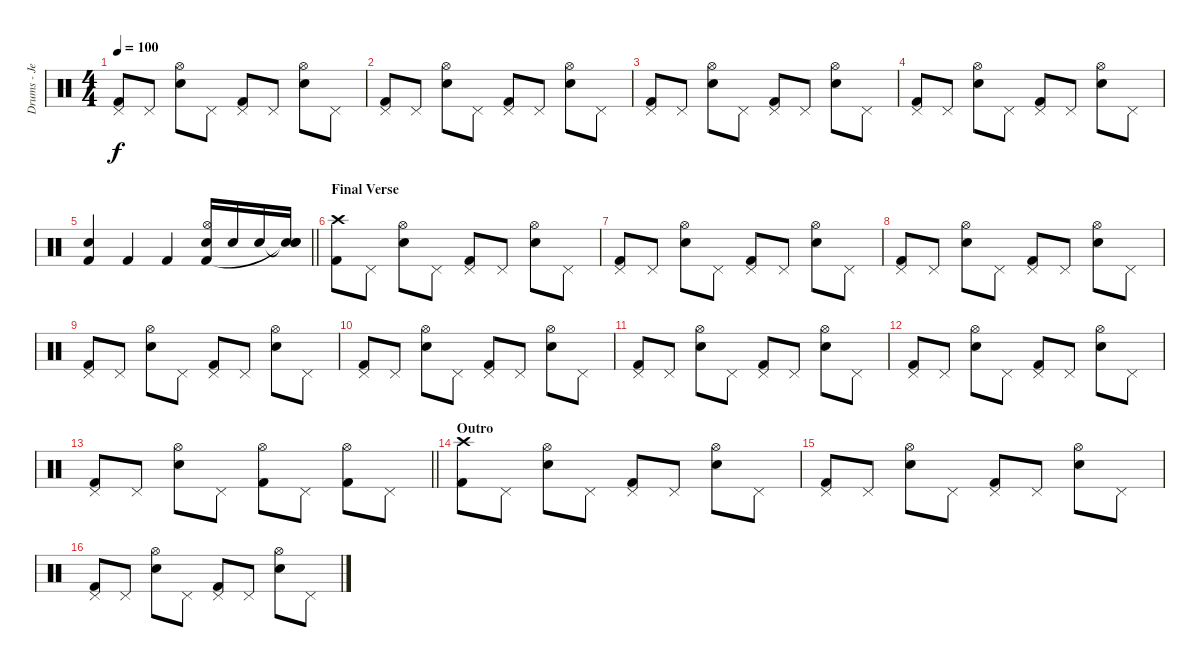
\track ("Drums - Jeremiah Green" "Drums - Je") {instrument percussion}
\staff {score}
\articulation defaults
\ts (4 4)
\tempo 100
\clef neutral
\ks c
("Pedal Hi-Hat (hit)" "Kick (hit) 2").8{dy f} "Pedal Hi-Hat (hit)".8 ("Hi-Hat (open)" "Electric Snare (hit)").8 "Pedal Hi-Hat (hit)".8 ("Pedal Hi-Hat (hit)" "Kick (hit) 2").8 "Pedal Hi-Hat (hit)".8 ("Hi-Hat (open)" "Electric Snare (hit)").8 "Pedal Hi-Hat (hit)".8 |
("Pedal Hi-Hat (hit)" "Kick (hit) 2").8 "Pedal Hi-Hat (hit)".8 ("Hi-Hat (open)" "Electric Snare (hit)").8 "Pedal Hi-Hat (hit)".8 ("Pedal Hi-Hat (hit)" "Kick (hit) 2").8 "Pedal Hi-Hat (hit)".8 ("Hi-Hat (open)" "Electric Snare (hit)").8 "Pedal Hi-Hat (hit)".8 |
("Pedal Hi-Hat (hit)" "Kick (hit) 2").8 "Pedal Hi-Hat (hit)".8 ("Hi-Hat (open)" "Electric Snare (hit)").8 "Pedal Hi-Hat (hit)".8 ("Pedal Hi-Hat (hit)" "Kick (hit) 2").8 "Pedal Hi-Hat (hit)".8 ("Hi-Hat (open)" "Electric Snare (hit)").8 "Pedal Hi-Hat (hit)".8 |
("Pedal Hi-Hat (hit)" "Kick (hit) 2").8 "Pedal Hi-Hat (hit)".8 ("Hi-Hat (open)" "Electric Snare (hit)").8 "Pedal Hi-Hat (hit)".8 ("Pedal Hi-Hat (hit)" "Kick (hit) 2").8 "Pedal Hi-Hat (hit)".8 ("Hi-Hat (open)" "Electric Snare (hit)").8 "Pedal Hi-Hat (hit)".8 |
\barLineRight lightlight
("Electric Snare (hit)" "Kick (hit) 2").4 "Kick (hit) 2".4 "Kick (hit) 2".4 ("Hi-Hat (open)" "Electric Snare (hit)" "Kick (hit) 2").16 "Electric Snare (hit)".16 "Electric Snare (hit)".16 ("Snare (hit)"{t} "Electric Snare (hit)" "Snare (hit)"{t}).16 |
\section ("" "Final Verse")
("Crash high (hit)" "Kick (hit) 2").8 "Pedal Hi-Hat (hit)".8 ("Hi-Hat (open)" "Electric Snare (hit)").8 "Pedal Hi-Hat (hit)".8 ("Pedal Hi-Hat (hit)" "Kick (hit) 2").8 "Pedal Hi-Hat (hit)".8 ("Hi-Hat (open)" "Electric Snare (hit)").8 "Pedal Hi-Hat (hit)".8 |
("Pedal Hi-Hat (hit)" "Kick (hit) 2").8 "Pedal Hi-Hat (hit)".8 ("Hi-Hat (open)" "Electric Snare (hit)").8 "Pedal Hi-Hat (hit)".8 ("Pedal Hi-Hat (hit)" "Kick (hit) 2").8 "Pedal Hi-Hat (hit)".8 ("Hi-Hat (open)" "Electric Snare (hit)").8 "Pedal Hi-Hat (hit)".8 |
("Pedal Hi-Hat (hit)" "Kick (hit) 2").8 "Pedal Hi-Hat (hit)".8 ("Hi-Hat (open)" "Electric Snare (hit)").8 "Pedal Hi-Hat (hit)".8 ("Pedal Hi-Hat (hit)" "Kick (hit) 2").8 "Pedal Hi-Hat (hit)".8 ("Hi-Hat (open)" "Electric Snare (hit)").8 "Pedal Hi-Hat (hit)".8 |
("Pedal Hi-Hat (hit)" "Kick (hit) 2").8 "Pedal Hi-Hat (hit)".8 ("Hi-Hat (open)" "Electric Snare (hit)").8 "Pedal Hi-Hat (hit)".8 ("Pedal Hi-Hat (hit)" "Kick (hit) 2").8 "Pedal Hi-Hat (hit)".8 ("Hi-Hat (open)" "Electric Snare (hit)").8 "Pedal Hi-Hat (hit)".8 |
("Pedal Hi-Hat (hit)" "Kick (hit) 2").8 "Pedal Hi-Hat (hit)".8 ("Hi-Hat (open)" "Electric Snare (hit)").8 "Pedal Hi-Hat (hit)".8 ("Pedal Hi-Hat (hit)" "Kick (hit) 2").8 "Pedal Hi-Hat (hit)".8 ("Hi-Hat (open)" "Electric Snare (hit)").8 "Pedal Hi-Hat (hit)".8 |
("Pedal Hi-Hat (hit)" "Kick (hit) 2").8 "Pedal Hi-Hat (hit)".8 ("Hi-Hat (open)" "Electric Snare (hit)").8 "Pedal Hi-Hat (hit)".8 ("Pedal Hi-Hat (hit)" "Kick (hit) 2").8 "Pedal Hi-Hat (hit)".8 ("Hi-Hat (open)" "Electric Snare (hit)").8 "Pedal Hi-Hat (hit)".8 |
("Pedal Hi-Hat (hit)" "Kick (hit) 2").8 "Pedal Hi-Hat (hit)".8 ("Hi-Hat (open)" "Electric Snare (hit)").8 "Pedal Hi-Hat (hit)".8 ("Pedal Hi-Hat (hit)" "Kick (hit) 2").8 "Pedal Hi-Hat (hit)".8 ("Hi-Hat (open)" "Electric Snare (hit)").8 "Pedal Hi-Hat (hit)".8 |
\barLineRight lightlight
("Pedal Hi-Hat (hit)" "Kick (hit) 2").8 "Pedal Hi-Hat (hit)".8 ("Hi-Hat (open)" "Electric Snare (hit)").8 "Pedal Hi-Hat (hit)".8 ("Hi-Hat (open)" "Kick (hit) 2").8 "Pedal Hi-Hat (hit)".8 ("Hi-Hat (open)" "Kick (hit) 2").8 "Pedal Hi-Hat (hit)".8 |
\section ("" "Outro")
("Crash high (hit)" "Kick (hit) 2").8 "Pedal Hi-Hat (hit)".8 ("Hi-Hat (open)" "Electric Snare (hit)").8 "Pedal Hi-Hat (hit)".8 ("Pedal Hi-Hat (hit)" "Kick (hit) 2").8 "Pedal Hi-Hat (hit)".8 ("Hi-Hat (open)" "Electric Snare (hit)").8 "Pedal Hi-Hat (hit)".8 |
("Pedal Hi-Hat (hit)" "Kick (hit) 2").8 "Pedal Hi-Hat (hit)".8 ("Hi-Hat (open)" "Electric Snare (hit)").8 "Pedal Hi-Hat (hit)".8 ("Pedal Hi-Hat (hit)" "Kick (hit) 2").8 "Pedal Hi-Hat (hit)".8 ("Hi-Hat (open)" "Electric Snare (hit)").8 "Pedal Hi-Hat (hit)".8 |
("Pedal Hi-Hat (hit)" "Kick (hit) 2").8 "Pedal Hi-Hat (hit)".8 ("Hi-Hat (open)" "Electric Snare (hit)").8 "Pedal Hi-Hat (hit)".8 ("Pedal Hi-Hat (hit)" "Kick (hit) 2").8 "Pedal Hi-Hat (hit)".8 ("Hi-Hat (open)" "Electric Snare (hit)").8 "Pedal Hi-Hat (hit)".8
